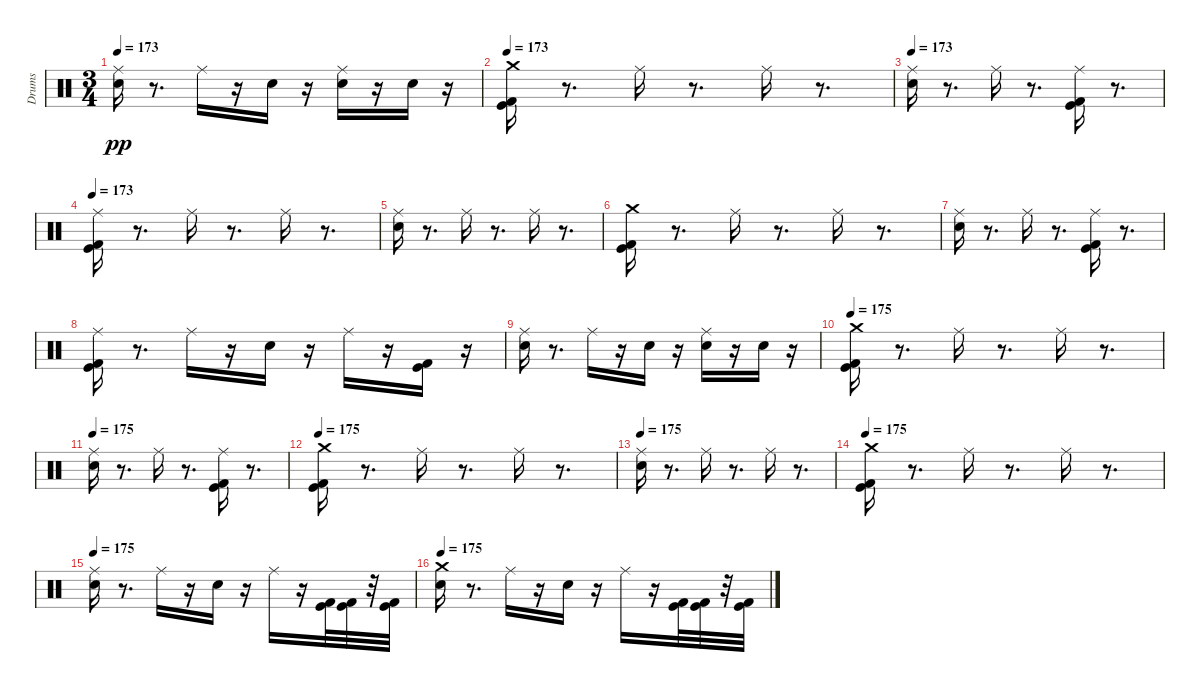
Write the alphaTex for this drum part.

\track ("Drums" "Drums") {instrument percussion}
\staff {score}
\articulation defaults
\ts (3 4)
\tempo 173
\clef neutral
\ks c
("Ride (middle)" "Snare (hit) 2").16{dy pp} r.8{d} "Ride (middle)".16 r.16 "Snare (hit) 2".16 r.16 ("Snare (hit) 2" "Ride (middle)").16 r.16 "Snare (hit) 2".16 r.16 |
\tempo 173
("Crash medium (hit)" "Kick (hit) 2" "Kick (hit)").16 r.8{d} "Ride (middle)".16 r.8{d} "Ride (middle)".16 r.8{d} |
\tempo 173
("Ride (middle)" "Snare (hit) 2").16 r.8{d} "Ride (middle)".16 r.8{d} ("Ride (middle)" "Kick (hit) 2" "Kick (hit)").16 r.8{d} |
\tempo 173
("Ride (middle)" "Kick (hit) 2" "Kick (hit)").16 r.8{d} "Ride (middle)".16 r.8{d} "Ride (middle)".16 r.8{d} |
("Ride (middle)" "Snare (hit) 2").16 r.8{d} "Ride (middle)".16 r.8{d} "Ride (middle)".16 r.8{d} |
("Crash medium (hit)" "Kick (hit) 2" "Kick (hit)").16 r.8{d} "Ride (middle)".16 r.8{d} "Ride (middle)".16 r.8{d} |
("Ride (middle)" "Snare (hit) 2").16 r.8{d} "Ride (middle)".16 r.8{d} ("Ride (middle)" "Kick (hit) 2" "Kick (hit)").16 r.8{d} |
("Ride (middle)" "Kick (hit) 2" "Kick (hit)").16 r.8{d} "Ride (middle)".16 r.16 "Snare (hit) 2".16 r.16 "Ride (middle)".16 r.16 ("Kick (hit) 2" "Kick (hit)").16 r.16 |
("Ride (middle)" "Snare (hit) 2").16 r.8{d} "Ride (middle)".16 r.16 "Snare (hit) 2".16 r.16 ("Snare (hit) 2" "Ride (middle)").16 r.16 "Snare (hit) 2".16 r.16 |
\tempo 175
("Crash medium (hit)" "Kick (hit) 2" "Kick (hit)").16 r.8{d} "Ride (middle)".16 r.8{d} "Ride (middle)".16 r.8{d} |
\tempo 175
("Ride (middle)" "Snare (hit) 2").16 r.8{d} "Ride (middle)".16 r.8{d} ("Ride (middle)" "Kick (hit) 2" "Kick (hit)").16 r.8{d} |
\tempo 175
("Crash medium (hit)" "Kick (hit) 2" "Kick (hit)").16 r.8{d} "Ride (middle)".16 r.8{d} "Ride (middle)".16 r.8{d} |
\tempo 175
("Ride (middle)" "Snare (hit) 2").16 r.8{d} "Ride (middle)".16 r.8{d} "Ride (middle)".16 r.8{d} |
\tempo 175
("Crash medium (hit)" "Kick (hit) 2" "Kick (hit)").16 r.8{d} "Ride (middle)".16 r.8{d} "Ride (middle)".16 r.8{d} |
\tempo 175
("Ride (middle)" "Snare (hit) 2").16 r.8{d} "Ride (middle)".16 r.16 "Snare (hit) 2".16 r.16 "Ride (middle)".16 r.16 ("Kick (hit) 2" "Kick (hit)").32 ("Kick (hit) 2" "Kick (hit)").32 r.32 ("Kick (hit) 2" "Kick (hit)").32 |
\tempo 175
("Crash medium (hit)" "Snare (hit) 2").16 r.8{d} "Ride (middle)".16 r.16 "Snare (hit) 2".16 r.16 "Ride (middle)".16 r.16 ("Kick (hit) 2" "Kick (hit)").32 ("Kick (hit) 2" "Kick (hit)").32 r.32 ("Kick (hit) 2" "Kick (hit)").32
